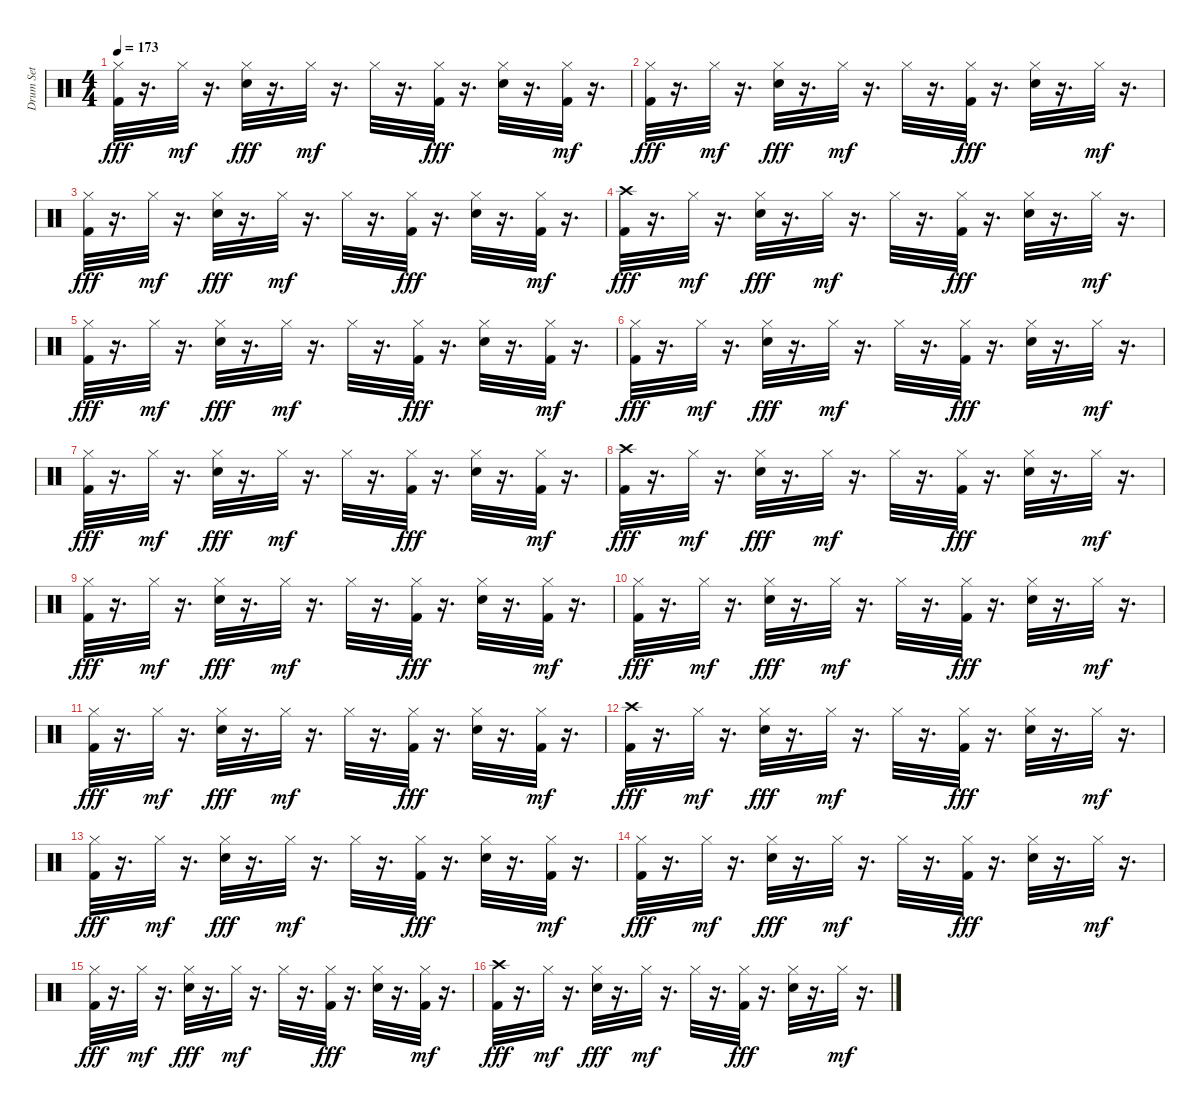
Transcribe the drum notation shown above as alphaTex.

\track ("Drum Set" "Drum Set") {instrument percussion}
\staff {score}
\articulation defaults
\ts (4 4)
\tempo 173
\clef neutral
\ks c
("Hi-Hat (closed)" "Kick (hit) 2").32{dy fff} r.16{d} "Hi-Hat (closed)".32{dy mf} r.16{d} ("Hi-Hat (closed)" "Electric Snare (hit)").32{dy fff} r.16{d} "Hi-Hat (closed)".32{dy mf} r.16{d} "Hi-Hat (closed)".32 r.16{d} ("Hi-Hat (closed)" "Kick (hit) 2").32{dy fff} r.16{d} ("Hi-Hat (closed)" "Electric Snare (hit)").32 r.16{d} ("Kick (hit) 2" "Hi-Hat (closed)").32{dy mf} r.16{d} |
("Hi-Hat (closed)" "Kick (hit) 2").32{dy fff} r.16{d} "Hi-Hat (closed)".32{dy mf} r.16{d} ("Hi-Hat (closed)" "Electric Snare (hit)").32{dy fff} r.16{d} "Hi-Hat (closed)".32{dy mf} r.16{d} "Hi-Hat (closed)".32 r.16{d} ("Hi-Hat (closed)" "Kick (hit) 2").32{dy fff} r.16{d} ("Hi-Hat (closed)" "Electric Snare (hit)").32 r.16{d} "Hi-Hat (closed)".32{dy mf} r.16{d} |
("Hi-Hat (closed)" "Kick (hit) 2").32{dy fff} r.16{d} "Hi-Hat (closed)".32{dy mf} r.16{d} ("Hi-Hat (closed)" "Electric Snare (hit)").32{dy fff} r.16{d} "Hi-Hat (closed)".32{dy mf} r.16{d} "Hi-Hat (closed)".32 r.16{d} ("Hi-Hat (closed)" "Kick (hit) 2").32{dy fff} r.16{d} ("Hi-Hat (closed)" "Electric Snare (hit)").32 r.16{d} ("Kick (hit) 2" "Hi-Hat (closed)").32{dy mf} r.16{d} |
("Crash high (hit)" "Kick (hit) 2").32{dy fff} r.16{d} "Hi-Hat (closed)".32{dy mf} r.16{d} ("Hi-Hat (closed)" "Electric Snare (hit)").32{dy fff} r.16{d} "Hi-Hat (closed)".32{dy mf} r.16{d} "Hi-Hat (closed)".32 r.16{d} ("Hi-Hat (closed)" "Kick (hit) 2").32{dy fff} r.16{d} ("Hi-Hat (closed)" "Electric Snare (hit)").32 r.16{d} "Hi-Hat (closed)".32{dy mf} r.16{d} |
("Hi-Hat (closed)" "Kick (hit) 2").32{dy fff} r.16{d} "Hi-Hat (closed)".32{dy mf} r.16{d} ("Hi-Hat (closed)" "Electric Snare (hit)").32{dy fff} r.16{d} "Hi-Hat (closed)".32{dy mf} r.16{d} "Hi-Hat (closed)".32 r.16{d} ("Hi-Hat (closed)" "Kick (hit) 2").32{dy fff} r.16{d} ("Hi-Hat (closed)" "Electric Snare (hit)").32 r.16{d} ("Kick (hit) 2" "Hi-Hat (closed)").32{dy mf} r.16{d} |
("Hi-Hat (closed)" "Kick (hit) 2").32{dy fff} r.16{d} "Hi-Hat (closed)".32{dy mf} r.16{d} ("Hi-Hat (closed)" "Electric Snare (hit)").32{dy fff} r.16{d} "Hi-Hat (closed)".32{dy mf} r.16{d} "Hi-Hat (closed)".32 r.16{d} ("Hi-Hat (closed)" "Kick (hit) 2").32{dy fff} r.16{d} ("Hi-Hat (closed)" "Electric Snare (hit)").32 r.16{d} "Hi-Hat (closed)".32{dy mf} r.16{d} |
("Hi-Hat (closed)" "Kick (hit) 2").32{dy fff} r.16{d} "Hi-Hat (closed)".32{dy mf} r.16{d} ("Hi-Hat (closed)" "Electric Snare (hit)").32{dy fff} r.16{d} "Hi-Hat (closed)".32{dy mf} r.16{d} "Hi-Hat (closed)".32 r.16{d} ("Hi-Hat (closed)" "Kick (hit) 2").32{dy fff} r.16{d} ("Hi-Hat (closed)" "Electric Snare (hit)").32 r.16{d} ("Kick (hit) 2" "Hi-Hat (closed)").32{dy mf} r.16{d} |
("Crash high (hit)" "Kick (hit) 2").32{dy fff} r.16{d} "Hi-Hat (closed)".32{dy mf} r.16{d} ("Hi-Hat (closed)" "Electric Snare (hit)").32{dy fff} r.16{d} "Hi-Hat (closed)".32{dy mf} r.16{d} "Hi-Hat (closed)".32 r.16{d} ("Hi-Hat (closed)" "Kick (hit) 2").32{dy fff} r.16{d} ("Hi-Hat (closed)" "Electric Snare (hit)").32 r.16{d} "Hi-Hat (closed)".32{dy mf} r.16{d} |
("Hi-Hat (closed)" "Kick (hit) 2").32{dy fff} r.16{d} "Hi-Hat (closed)".32{dy mf} r.16{d} ("Hi-Hat (closed)" "Electric Snare (hit)").32{dy fff} r.16{d} "Hi-Hat (closed)".32{dy mf} r.16{d} "Hi-Hat (closed)".32 r.16{d} ("Hi-Hat (closed)" "Kick (hit) 2").32{dy fff} r.16{d} ("Hi-Hat (closed)" "Electric Snare (hit)").32 r.16{d} ("Kick (hit) 2" "Hi-Hat (closed)").32{dy mf} r.16{d} |
("Hi-Hat (closed)" "Kick (hit) 2").32{dy fff} r.16{d} "Hi-Hat (closed)".32{dy mf} r.16{d} ("Hi-Hat (closed)" "Electric Snare (hit)").32{dy fff} r.16{d} "Hi-Hat (closed)".32{dy mf} r.16{d} "Hi-Hat (closed)".32 r.16{d} ("Hi-Hat (closed)" "Kick (hit) 2").32{dy fff} r.16{d} ("Hi-Hat (closed)" "Electric Snare (hit)").32 r.16{d} "Hi-Hat (closed)".32{dy mf} r.16{d} |
("Hi-Hat (closed)" "Kick (hit) 2").32{dy fff} r.16{d} "Hi-Hat (closed)".32{dy mf} r.16{d} ("Hi-Hat (closed)" "Electric Snare (hit)").32{dy fff} r.16{d} "Hi-Hat (closed)".32{dy mf} r.16{d} "Hi-Hat (closed)".32 r.16{d} ("Hi-Hat (closed)" "Kick (hit) 2").32{dy fff} r.16{d} ("Hi-Hat (closed)" "Electric Snare (hit)").32 r.16{d} ("Kick (hit) 2" "Hi-Hat (closed)").32{dy mf} r.16{d} |
("Crash high (hit)" "Kick (hit) 2").32{dy fff} r.16{d} "Hi-Hat (closed)".32{dy mf} r.16{d} ("Hi-Hat (closed)" "Electric Snare (hit)").32{dy fff} r.16{d} "Hi-Hat (closed)".32{dy mf} r.16{d} "Hi-Hat (closed)".32 r.16{d} ("Hi-Hat (closed)" "Kick (hit) 2").32{dy fff} r.16{d} ("Hi-Hat (closed)" "Electric Snare (hit)").32 r.16{d} "Hi-Hat (closed)".32{dy mf} r.16{d} |
("Hi-Hat (closed)" "Kick (hit) 2").32{dy fff} r.16{d} "Hi-Hat (closed)".32{dy mf} r.16{d} ("Hi-Hat (closed)" "Electric Snare (hit)").32{dy fff} r.16{d} "Hi-Hat (closed)".32{dy mf} r.16{d} "Hi-Hat (closed)".32 r.16{d} ("Hi-Hat (closed)" "Kick (hit) 2").32{dy fff} r.16{d} ("Hi-Hat (closed)" "Electric Snare (hit)").32 r.16{d} ("Kick (hit) 2" "Hi-Hat (closed)").32{dy mf} r.16{d} |
("Hi-Hat (closed)" "Kick (hit) 2").32{dy fff} r.16{d} "Hi-Hat (closed)".32{dy mf} r.16{d} ("Hi-Hat (closed)" "Electric Snare (hit)").32{dy fff} r.16{d} "Hi-Hat (closed)".32{dy mf} r.16{d} "Hi-Hat (closed)".32 r.16{d} ("Hi-Hat (closed)" "Kick (hit) 2").32{dy fff} r.16{d} ("Hi-Hat (closed)" "Electric Snare (hit)").32 r.16{d} "Hi-Hat (closed)".32{dy mf} r.16{d} |
("Hi-Hat (closed)" "Kick (hit) 2").32{dy fff} r.16{d} "Hi-Hat (closed)".32{dy mf} r.16{d} ("Hi-Hat (closed)" "Electric Snare (hit)").32{dy fff} r.16{d} "Hi-Hat (closed)".32{dy mf} r.16{d} "Hi-Hat (closed)".32 r.16{d} ("Hi-Hat (closed)" "Kick (hit) 2").32{dy fff} r.16{d} ("Hi-Hat (closed)" "Electric Snare (hit)").32 r.16{d} ("Kick (hit) 2" "Hi-Hat (closed)").32{dy mf} r.16{d} |
("Crash high (hit)" "Kick (hit) 2").32{dy fff} r.16{d} "Hi-Hat (closed)".32{dy mf} r.16{d} ("Hi-Hat (closed)" "Electric Snare (hit)").32{dy fff} r.16{d} "Hi-Hat (closed)".32{dy mf} r.16{d} "Hi-Hat (closed)".32 r.16{d} ("Hi-Hat (closed)" "Kick (hit) 2").32{dy fff} r.16{d} ("Hi-Hat (closed)" "Electric Snare (hit)").32 r.16{d} "Hi-Hat (closed)".32{dy mf} r.16{d}
